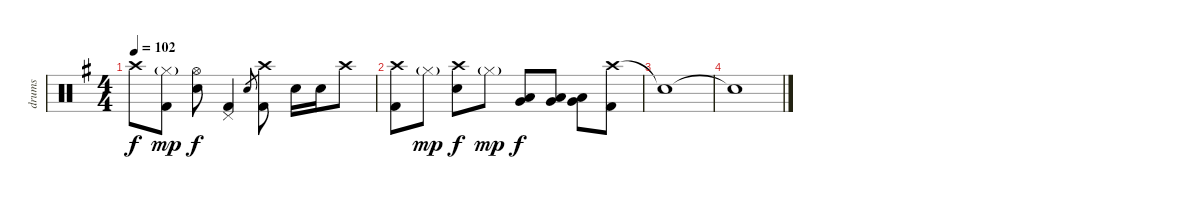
\track ("drums" "drums") {instrument percussion}
\staff {score}
\articulation defaults
\ts (4 4)
\tempo 102
\clef neutral
\ks eminor "Crash high (hit)"{t}.8{dy f}
("Hi-Hat (closed)"{g} "Kick (hit) 2").8{dy mp} ("Hi-Hat (open)" "Snare (hit) 2").8{dy f} ("Pedal Hi-Hat (hit)" "Kick (hit) 2").4 "Snare (hit) 2".8{gr} ("Crash high (hit)" "Kick (hit) 2").8 "Snare (hit) 2".16 "Snare (hit) 2".16 "Crash high (hit)".8 |
("Crash high (hit)" "Kick (hit) 2").8 "Hi-Hat (closed)"{g}.8{dy mp} ("Crash high (hit)" "Snare (hit) 2").8{dy f} "Hi-Hat (closed)"{g}.8{dy mp} ("Very Low Tom (hit)" "Low Floor Tom (hit)").8{dy f} ("Very Low Tom (hit)" "Low Floor Tom (hit)").8 ("Very Low Tom (hit)" "Low Floor Tom (hit)").8 ("Crash high (hit)" "Kick (hit) 2").8 |
"Snare (hit)"{t}.1 |
"Snare (hit)"{t}.1
